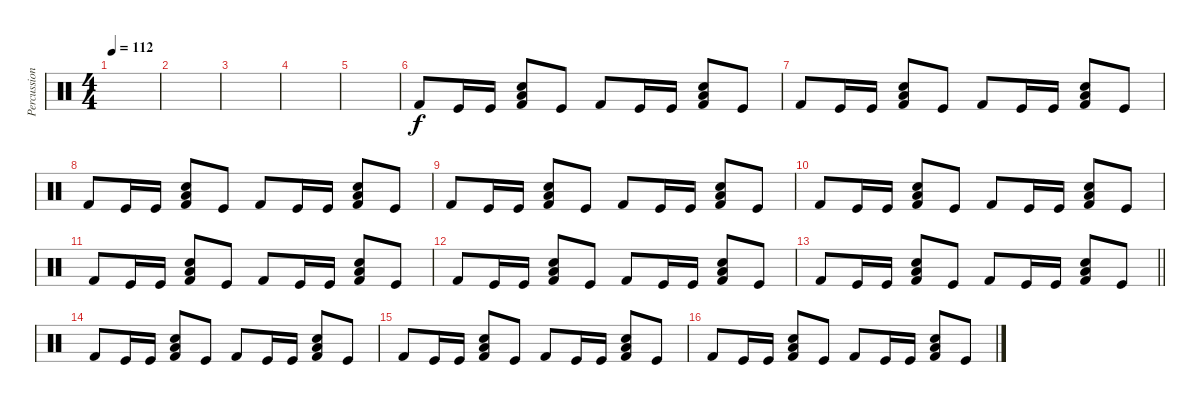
\track ("Percussion" "Percussion") {instrument percussion}
\staff {score}
\articulation defaults
\ts (4 4)
\tempo 112
\clef neutral
\ks c
|
|
|
|
|
"Kick (hit) 2".8 "Kick (hit)".16 "Kick (hit)".16 ("Kick (hit) 2" "Low Floor Tom (hit)" "Hand Clap (hit)").8 "Kick (hit)".8 "Kick (hit) 2".8 "Kick (hit)".16 "Kick (hit)".16 ("Kick (hit) 2" "Low Floor Tom (hit)" "Hand Clap (hit)").8 "Kick (hit)".8 |
"Kick (hit) 2".8 "Kick (hit)".16 "Kick (hit)".16 ("Kick (hit) 2" "Low Floor Tom (hit)" "Hand Clap (hit)").8 "Kick (hit)".8 "Kick (hit) 2".8 "Kick (hit)".16 "Kick (hit)".16 ("Kick (hit) 2" "Low Floor Tom (hit)" "Hand Clap (hit)").8 "Kick (hit)".8 |
"Kick (hit) 2".8 "Kick (hit)".16 "Kick (hit)".16 ("Kick (hit) 2" "Low Floor Tom (hit)" "Hand Clap (hit)").8 "Kick (hit)".8 "Kick (hit) 2".8 "Kick (hit)".16 "Kick (hit)".16 ("Kick (hit) 2" "Low Floor Tom (hit)" "Hand Clap (hit)").8 "Kick (hit)".8 |
"Kick (hit) 2".8 "Kick (hit)".16 "Kick (hit)".16 ("Kick (hit) 2" "Low Floor Tom (hit)" "Hand Clap (hit)").8 "Kick (hit)".8 "Kick (hit) 2".8 "Kick (hit)".16 "Kick (hit)".16 ("Kick (hit) 2" "Low Floor Tom (hit)" "Hand Clap (hit)").8 "Kick (hit)".8 |
"Kick (hit) 2".8 "Kick (hit)".16 "Kick (hit)".16 ("Kick (hit) 2" "Low Floor Tom (hit)" "Hand Clap (hit)").8 "Kick (hit)".8 "Kick (hit) 2".8 "Kick (hit)".16 "Kick (hit)".16 ("Kick (hit) 2" "Low Floor Tom (hit)" "Hand Clap (hit)").8 "Kick (hit)".8 |
"Kick (hit) 2".8 "Kick (hit)".16 "Kick (hit)".16 ("Kick (hit) 2" "Low Floor Tom (hit)" "Hand Clap (hit)").8 "Kick (hit)".8 "Kick (hit) 2".8 "Kick (hit)".16 "Kick (hit)".16 ("Kick (hit) 2" "Low Floor Tom (hit)" "Hand Clap (hit)").8 "Kick (hit)".8 |
"Kick (hit) 2".8 "Kick (hit)".16 "Kick (hit)".16 ("Kick (hit) 2" "Low Floor Tom (hit)" "Hand Clap (hit)").8 "Kick (hit)".8 "Kick (hit) 2".8 "Kick (hit)".16 "Kick (hit)".16 ("Kick (hit) 2" "Low Floor Tom (hit)" "Hand Clap (hit)").8 "Kick (hit)".8 |
\barLineRight lightlight "Kick (hit) 2".8 "Kick (hit)".16 "Kick (hit)".16
("Kick (hit) 2" "Low Floor Tom (hit)" "Hand Clap (hit)").8 "Kick (hit)".8 "Kick (hit) 2".8 "Kick (hit)".16 "Kick (hit)".16 ("Kick (hit) 2" "Low Floor Tom (hit)" "Hand Clap (hit)").8 "Kick (hit)".8 |
"Kick (hit) 2".8 "Kick (hit)".16 "Kick (hit)".16 ("Kick (hit) 2" "Low Floor Tom (hit)" "Hand Clap (hit)").8 "Kick (hit)".8 "Kick (hit) 2".8 "Kick (hit)".16 "Kick (hit)".16 ("Kick (hit) 2" "Low Floor Tom (hit)" "Hand Clap (hit)").8 "Kick (hit)".8 |
"Kick (hit) 2".8 "Kick (hit)".16 "Kick (hit)".16 ("Kick (hit) 2" "Low Floor Tom (hit)" "Hand Clap (hit)").8 "Kick (hit)".8 "Kick (hit) 2".8 "Kick (hit)".16 "Kick (hit)".16 ("Kick (hit) 2" "Low Floor Tom (hit)" "Hand Clap (hit)").8 "Kick (hit)".8 |
"Kick (hit) 2".8 "Kick (hit)".16 "Kick (hit)".16 ("Kick (hit) 2" "Low Floor Tom (hit)" "Hand Clap (hit)").8 "Kick (hit)".8 "Kick (hit) 2".8 "Kick (hit)".16 "Kick (hit)".16 ("Kick (hit) 2" "Low Floor Tom (hit)" "Hand Clap (hit)").8 "Kick (hit)".8
